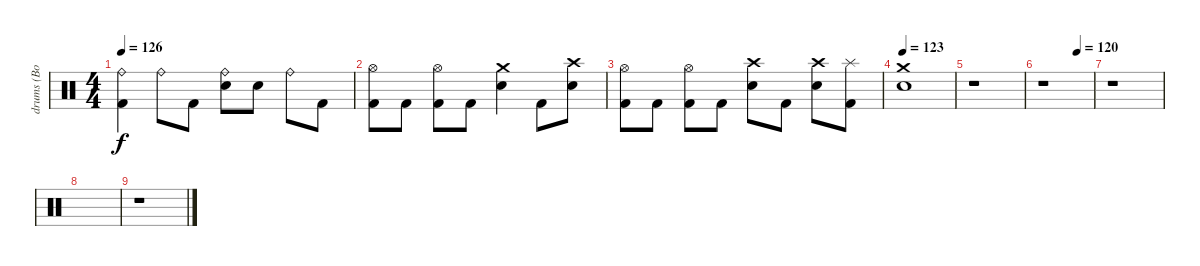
\track (" drums (Bob Bryar)" " drums (Bo") {instrument percussion}
\staff {score}
\articulation defaults
\ts (4 4)
\tempo 126
\clef neutral
\ks c
("Ride (bell)" "Kick (hit) 2").4{dy f} "Ride (bell)".8 "Kick (hit) 2".8 ("Ride (bell)" "Snare (hit) 2").8 "Snare (hit) 2".8 "Ride (bell)".8 "Kick (hit) 2".8 |
("Hi-Hat (open)" "Kick (hit) 2").8 "Kick (hit) 2".8 ("Hi-Hat (open)" "Kick (hit) 2").8 "Kick (hit) 2".8 ("Crash medium (hit)" "Snare (hit) 2").4 "Kick (hit) 2".8 ("Crash high (hit)" "Snare (hit) 2").8 |
("Hi-Hat (open)" "Kick (hit) 2").8 "Kick (hit) 2".8 ("Hi-Hat (open)" "Kick (hit) 2").8 "Kick (hit) 2".8 ("Crash high (hit)" "Snare (hit) 2").8 "Kick (hit) 2".8 ("Crash high (hit)" "Snare (hit) 2").8 ("Splash (hit)" "Kick (hit) 2").8 |
\tempo 123
("Crash medium (hit)" "Snare (hit) 2").1 |
r.1 |
\tempo (120 0.6875)
r.1 |
r.1 |
|
r.1
